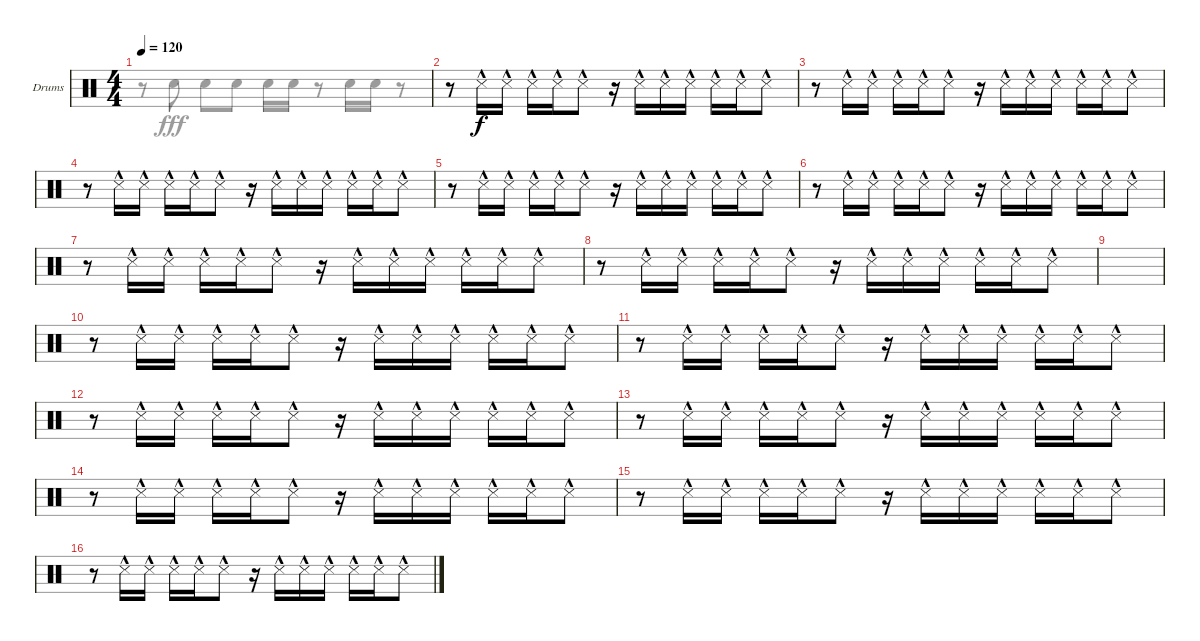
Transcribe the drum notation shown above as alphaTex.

\defaultSystemsLayout 4
\bracketExtendMode nobrackets
\firstSystemTrackNameOrientation horizontal
\otherSystemsTrackNameOrientation horizontal
\track ("Drumkit" "Drums") {instrument percussion}
\staff {score}
\articulation defaults
\voice
\ts (4 4)
\tempo 120
\clef neutral
\ks c
|
r.8 "Snare (side stick) 3"{hac}.16 "Snare (side stick) 3"{hac}.16 "Snare (side stick) 3"{hac}.16 "Snare (side stick) 3"{hac}.16 "Snare (side stick) 3"{hac}.8 r.16 "Snare (side stick) 3"{hac}.16 "Snare (side stick) 3"{hac}.16 "Snare (side stick) 3"{hac}.16 "Snare (side stick) 3"{hac}.16 "Snare (side stick) 3"{hac}.16 "Snare (side stick) 3"{hac}.8 |
r.8 "Snare (side stick) 3"{hac}.16 "Snare (side stick) 3"{hac}.16 "Snare (side stick) 3"{hac}.16 "Snare (side stick) 3"{hac}.16 "Snare (side stick) 3"{hac}.8 r.16 "Snare (side stick) 3"{hac}.16 "Snare (side stick) 3"{hac}.16 "Snare (side stick) 3"{hac}.16 "Snare (side stick) 3"{hac}.16 "Snare (side stick) 3"{hac}.16 "Snare (side stick) 3"{hac}.8 |
r.8 "Snare (side stick) 3"{hac}.16 "Snare (side stick) 3"{hac}.16 "Snare (side stick) 3"{hac}.16 "Snare (side stick) 3"{hac}.16 "Snare (side stick) 3"{hac}.8 r.16 "Snare (side stick) 3"{hac}.16 "Snare (side stick) 3"{hac}.16 "Snare (side stick) 3"{hac}.16 "Snare (side stick) 3"{hac}.16 "Snare (side stick) 3"{hac}.16 "Snare (side stick) 3"{hac}.8 |
r.8 "Snare (side stick) 3"{hac}.16 "Snare (side stick) 3"{hac}.16 "Snare (side stick) 3"{hac}.16 "Snare (side stick) 3"{hac}.16 "Snare (side stick) 3"{hac}.8 r.16 "Snare (side stick) 3"{hac}.16 "Snare (side stick) 3"{hac}.16 "Snare (side stick) 3"{hac}.16 "Snare (side stick) 3"{hac}.16 "Snare (side stick) 3"{hac}.16 "Snare (side stick) 3"{hac}.8 |
r.8 "Snare (side stick) 3"{hac}.16 "Snare (side stick) 3"{hac}.16 "Snare (side stick) 3"{hac}.16 "Snare (side stick) 3"{hac}.16 "Snare (side stick) 3"{hac}.8 r.16 "Snare (side stick) 3"{hac}.16 "Snare (side stick) 3"{hac}.16 "Snare (side stick) 3"{hac}.16 "Snare (side stick) 3"{hac}.16 "Snare (side stick) 3"{hac}.16 "Snare (side stick) 3"{hac}.8 |
r.8 "Snare (side stick) 3"{hac}.16 "Snare (side stick) 3"{hac}.16 "Snare (side stick) 3"{hac}.16 "Snare (side stick) 3"{hac}.16 "Snare (side stick) 3"{hac}.8 r.16 "Snare (side stick) 3"{hac}.16 "Snare (side stick) 3"{hac}.16 "Snare (side stick) 3"{hac}.16 "Snare (side stick) 3"{hac}.16 "Snare (side stick) 3"{hac}.16 "Snare (side stick) 3"{hac}.8 |
r.8 "Snare (side stick) 3"{hac}.16 "Snare (side stick) 3"{hac}.16 "Snare (side stick) 3"{hac}.16 "Snare (side stick) 3"{hac}.16 "Snare (side stick) 3"{hac}.8 r.16 "Snare (side stick) 3"{hac}.16 "Snare (side stick) 3"{hac}.16 "Snare (side stick) 3"{hac}.16 "Snare (side stick) 3"{hac}.16 "Snare (side stick) 3"{hac}.16 "Snare (side stick) 3"{hac}.8 |
|
r.8 "Snare (side stick) 3"{hac}.16 "Snare (side stick) 3"{hac}.16 "Snare (side stick) 3"{hac}.16 "Snare (side stick) 3"{hac}.16 "Snare (side stick) 3"{hac}.8 r.16 "Snare (side stick) 3"{hac}.16 "Snare (side stick) 3"{hac}.16 "Snare (side stick) 3"{hac}.16 "Snare (side stick) 3"{hac}.16 "Snare (side stick) 3"{hac}.16 "Snare (side stick) 3"{hac}.8 |
r.8 "Snare (side stick) 3"{hac}.16 "Snare (side stick) 3"{hac}.16 "Snare (side stick) 3"{hac}.16 "Snare (side stick) 3"{hac}.16 "Snare (side stick) 3"{hac}.8 r.16 "Snare (side stick) 3"{hac}.16 "Snare (side stick) 3"{hac}.16 "Snare (side stick) 3"{hac}.16 "Snare (side stick) 3"{hac}.16 "Snare (side stick) 3"{hac}.16 "Snare (side stick) 3"{hac}.8 |
r.8 "Snare (side stick) 3"{hac}.16 "Snare (side stick) 3"{hac}.16 "Snare (side stick) 3"{hac}.16 "Snare (side stick) 3"{hac}.16 "Snare (side stick) 3"{hac}.8 r.16 "Snare (side stick) 3"{hac}.16 "Snare (side stick) 3"{hac}.16 "Snare (side stick) 3"{hac}.16 "Snare (side stick) 3"{hac}.16 "Snare (side stick) 3"{hac}.16 "Snare (side stick) 3"{hac}.8 |
r.8 "Snare (side stick) 3"{hac}.16 "Snare (side stick) 3"{hac}.16 "Snare (side stick) 3"{hac}.16 "Snare (side stick) 3"{hac}.16 "Snare (side stick) 3"{hac}.8 r.16 "Snare (side stick) 3"{hac}.16 "Snare (side stick) 3"{hac}.16 "Snare (side stick) 3"{hac}.16 "Snare (side stick) 3"{hac}.16 "Snare (side stick) 3"{hac}.16 "Snare (side stick) 3"{hac}.8 |
r.8 "Snare (side stick) 3"{hac}.16 "Snare (side stick) 3"{hac}.16 "Snare (side stick) 3"{hac}.16 "Snare (side stick) 3"{hac}.16 "Snare (side stick) 3"{hac}.8 r.16 "Snare (side stick) 3"{hac}.16 "Snare (side stick) 3"{hac}.16 "Snare (side stick) 3"{hac}.16 "Snare (side stick) 3"{hac}.16 "Snare (side stick) 3"{hac}.16 "Snare (side stick) 3"{hac}.8 |
r.8 "Snare (side stick) 3"{hac}.16 "Snare (side stick) 3"{hac}.16 "Snare (side stick) 3"{hac}.16 "Snare (side stick) 3"{hac}.16 "Snare (side stick) 3"{hac}.8 r.16 "Snare (side stick) 3"{hac}.16 "Snare (side stick) 3"{hac}.16 "Snare (side stick) 3"{hac}.16 "Snare (side stick) 3"{hac}.16 "Snare (side stick) 3"{hac}.16 "Snare (side stick) 3"{hac}.8 |
r.8 "Snare (side stick) 3"{hac}.16 "Snare (side stick) 3"{hac}.16 "Snare (side stick) 3"{hac}.16 "Snare (side stick) 3"{hac}.16 "Snare (side stick) 3"{hac}.8 r.16 "Snare (side stick) 3"{hac}.16 "Snare (side stick) 3"{hac}.16 "Snare (side stick) 3"{hac}.16 "Snare (side stick) 3"{hac}.16 "Snare (side stick) 3"{hac}.16 "Snare (side stick) 3"{hac}.8
\voice
\clef neutral
\ottava regular
\simile none
\ks c
r.8{dy fff} "Snare (hit) 2".8 "Snare (hit) 2".8 "Snare (hit) 2".8 "Snare (hit) 2".16 "Snare (hit) 2".16 r.8 "Snare (hit) 2".16 "Snare (hit) 2".16 r.8 |
|
|
|
|
|
|
|
|
|
|
|
|
|
|
